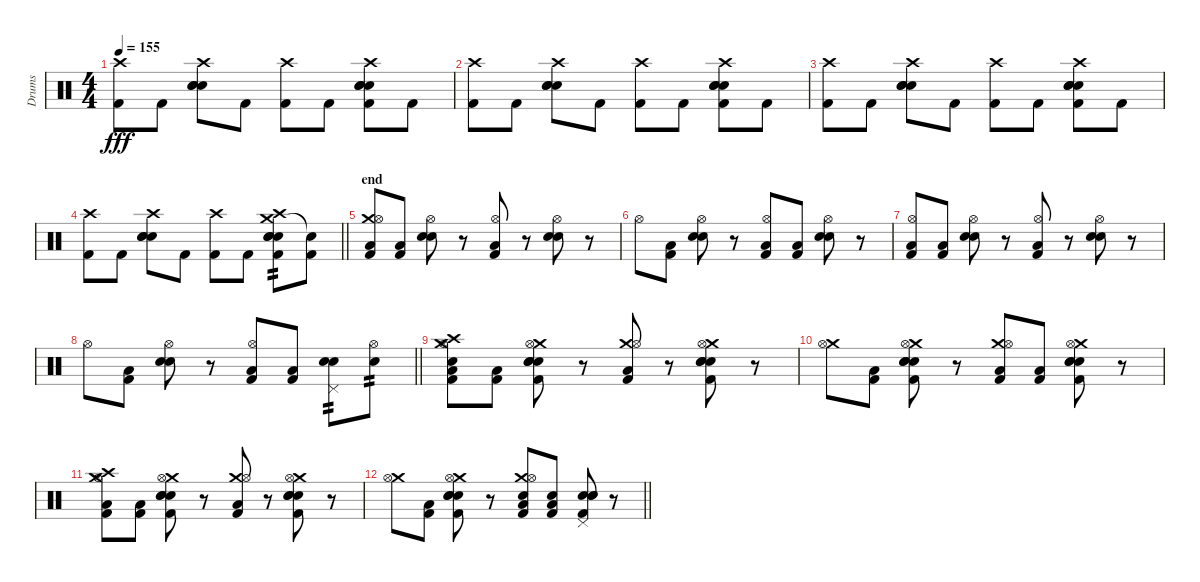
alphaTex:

\track ("Drums" "Drums") {instrument percussion}
\staff {score}
\articulation defaults
\ts (4 4)
\tempo 155
\clef neutral
\ks c
("Crash high (hit)" "Kick (hit) 2").8{dy fff} "Kick (hit) 2".8 ("Crash high (hit)" "Hand Clap (hit)" "Electric Snare (hit)" "Snare (hit) 2").8 "Kick (hit) 2".8 ("Crash high (hit)" "Kick (hit) 2").8 "Kick (hit) 2".8 ("Crash high (hit)" "Hand Clap (hit)" "Electric Snare (hit)" "Snare (hit) 2" "Kick (hit) 2").8 "Kick (hit) 2".8 |
("Crash high (hit)" "Kick (hit) 2").8 "Kick (hit) 2".8 ("Crash high (hit)" "Hand Clap (hit)" "Electric Snare (hit)" "Snare (hit) 2").8 "Kick (hit) 2".8 ("Crash high (hit)" "Kick (hit) 2").8 "Kick (hit) 2".8 ("Crash high (hit)" "Hand Clap (hit)" "Electric Snare (hit)" "Snare (hit) 2" "Kick (hit) 2").8 "Kick (hit) 2".8 |
("Crash high (hit)" "Kick (hit) 2").8 "Kick (hit) 2".8 ("Crash high (hit)" "Hand Clap (hit)" "Electric Snare (hit)" "Snare (hit) 2").8 "Kick (hit) 2".8 ("Crash high (hit)" "Kick (hit) 2").8 "Kick (hit) 2".8 ("Crash high (hit)" "Hand Clap (hit)" "Electric Snare (hit)" "Snare (hit) 2" "Kick (hit) 2").8 "Kick (hit) 2".8 |
\barLineRight lightlight
("Crash high (hit)" "Kick (hit) 2").8 "Kick (hit) 2".8 ("Crash high (hit)" "Hand Clap (hit)" "Electric Snare (hit)" "Snare (hit) 2").8 "Kick (hit) 2".8 ("Crash high (hit)" "Kick (hit) 2").8 "Kick (hit) 2".8 ("Crash medium (hit)" "Crash high (hit)" "Hand Clap (hit)" "Electric Snare (hit)" "Snare (hit) 2" "Kick (hit) 2").8{tp 2} ("Snare (hit)"{t} "Kick (hit) 2").8 |
\section ("" "end")
("Crash medium (hit)" "Hi-Hat (open)" "Low Tom (hit)" "Kick (hit) 2").8 ("Low Tom (hit)" "Kick (hit) 2").8 ("Hi-Hat (open)" "Electric Snare (hit)" "Snare (hit) 2").8 r.8 ("Hi-Hat (open)" "Low Tom (hit)" "Kick (hit) 2").8 r.8 ("Hi-Hat (open)" "Electric Snare (hit)" "Snare (hit) 2").8 r.8 |
"Hi-Hat (open)".8 ("Low Tom (hit)" "Kick (hit) 2").8 ("Hi-Hat (open)" "Electric Snare (hit)" "Snare (hit) 2").8 r.8 ("Hi-Hat (open)" "Low Tom (hit)" "Kick (hit) 2").8 ("Low Tom (hit)" "Kick (hit) 2").8 ("Hi-Hat (open)" "Electric Snare (hit)" "Snare (hit) 2").8 r.8 |
("Hi-Hat (open)" "Low Tom (hit)" "Kick (hit) 2").8 ("Low Tom (hit)" "Kick (hit) 2").8 ("Hi-Hat (open)" "Electric Snare (hit)" "Snare (hit) 2").8 r.8 ("Hi-Hat (open)" "Low Tom (hit)" "Kick (hit) 2").8 r.8 ("Hi-Hat (open)" "Electric Snare (hit)" "Snare (hit) 2").8 r.8 |
\barLineRight lightlight "Hi-Hat (open)".8
("Low Tom (hit)" "Kick (hit) 2").8 ("Hi-Hat (open)" "Electric Snare (hit)" "Snare (hit) 2").8 r.8 ("Hi-Hat (open)" "Low Tom (hit)" "Kick (hit) 2").8 ("Low Tom (hit)" "Kick (hit) 2").8 ("Pedal Hi-Hat (hit)" "Electric Snare (hit)" "Snare (hit) 2").8{tp 2} ("Hi-Hat (open)" "Electric Snare (hit)").8{tp 2} |
("Crash medium (hit)" "Hi-Hat (open)" "Crash high (hit)" "Electric Snare (hit)" "Low Tom (hit)" "Kick (hit) 2").8 ("Low Tom (hit)" "Kick (hit) 2").8 ("Crash medium (hit)" "Hi-Hat (open)" "Snare (hit) 2" "Electric Snare (hit)" "Snare (hit) 2" "Kick (hit) 2").8 r.8 ("Crash medium (hit)" "Hi-Hat (open)" "Low Tom (hit)" "Kick (hit) 2").8 r.8 ("Crash medium (hit)" "Hi-Hat (open)" "Snare (hit) 2" "Electric Snare (hit)" "Snare (hit) 2" "Kick (hit) 2").8 r.8 |
("Crash medium (hit)" "Hi-Hat (open)").8 ("Low Tom (hit)" "Kick (hit) 2").8 ("Crash medium (hit)" "Hi-Hat (open)" "Snare (hit) 2" "Electric Snare (hit)" "Snare (hit) 2" "Kick (hit) 2").8 r.8 ("Crash medium (hit)" "Hi-Hat (open)" "Low Tom (hit)" "Kick (hit) 2").8 ("Low Tom (hit)" "Kick (hit) 2").8 ("Crash medium (hit)" "Hi-Hat (open)" "Snare (hit) 2" "Electric Snare (hit)" "Snare (hit) 2" "Kick (hit) 2").8 r.8 |
("Crash medium (hit)" "Hi-Hat (open)" "Crash high (hit)" "Low Tom (hit)" "Kick (hit) 2").8 ("Low Tom (hit)" "Kick (hit) 2").8 ("Crash medium (hit)" "Hi-Hat (open)" "Snare (hit) 2" "Electric Snare (hit)" "Snare (hit) 2" "Kick (hit) 2").8 r.8 ("Crash medium (hit)" "Hi-Hat (open)" "Low Tom (hit)" "Kick (hit) 2").8 r.8 ("Crash medium (hit)" "Hi-Hat (open)" "Snare (hit) 2" "Electric Snare (hit)" "Snare (hit) 2" "Kick (hit) 2").8 r.8 |
\barLineRight lightlight
("Crash medium (hit)" "Hi-Hat (open)").8 ("Low Tom (hit)" "Kick (hit) 2").8 ("Crash medium (hit)" "Hi-Hat (open)" "Snare (hit) 2" "Electric Snare (hit)" "Snare (hit) 2" "Kick (hit) 2").8 r.8 ("Crash medium (hit)" "Hi-Hat (open)" "Snare (hit) 2" "Low Tom (hit)" "Kick (hit) 2").8 ("Snare (hit) 2" "Low Tom (hit)" "Kick (hit) 2").8 ("Pedal Hi-Hat (hit)" "Snare (hit) 2" "Electric Snare (hit)" "Snare (hit) 2" "Kick (hit) 2").8 r.8
